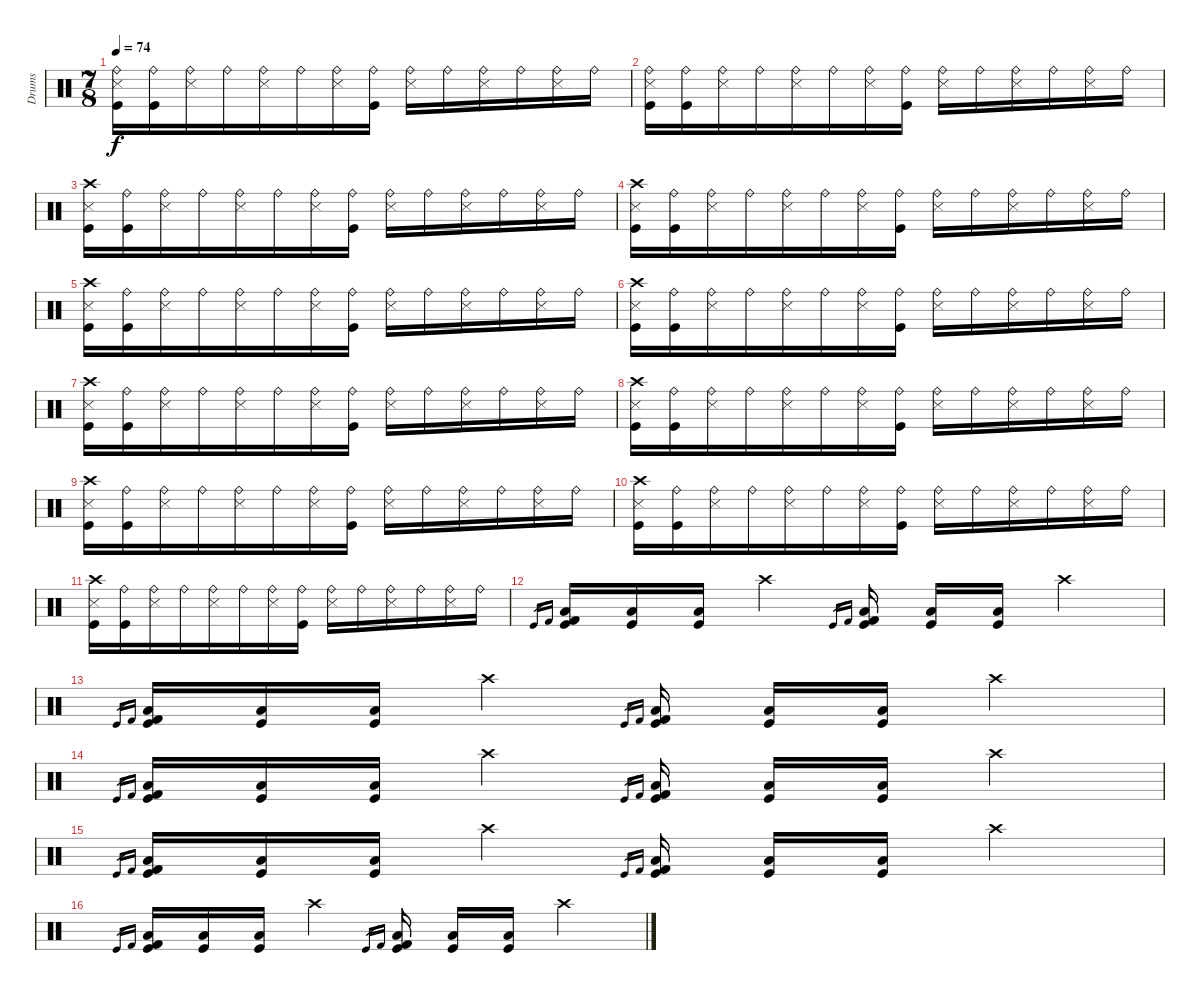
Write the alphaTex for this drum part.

\track ("Drums" "Drums") {instrument percussion}
\staff {score}
\articulation defaults
\ts (7 8)
\tempo 74
\clef neutral
\ks c
("Ride (bell)" "Snare (side stick) 3" "Kick (hit)").16{dy f} ("Ride (bell)" "Kick (hit)").16 ("Ride (bell)" "Snare (side stick) 3").16 "Ride (bell)".16 ("Ride (bell)" "Snare (side stick) 3").16 "Ride (bell)".16 ("Ride (bell)" "Snare (side stick) 3").16 ("Ride (bell)" "Kick (hit)").16 ("Ride (bell)" "Snare (side stick) 3").16 "Ride (bell)".16 ("Ride (bell)" "Snare (side stick) 3").16 "Ride (bell)".16 ("Ride (bell)" "Snare (side stick) 3").16 "Ride (bell)".16 |
("Ride (bell)" "Snare (side stick) 3" "Kick (hit)").16 ("Ride (bell)" "Kick (hit)").16 ("Ride (bell)" "Snare (side stick) 3").16 "Ride (bell)".16 ("Ride (bell)" "Snare (side stick) 3").16 "Ride (bell)".16 ("Ride (bell)" "Snare (side stick) 3").16 ("Ride (bell)" "Kick (hit)").16 ("Ride (bell)" "Snare (side stick) 3").16 "Ride (bell)".16 ("Ride (bell)" "Snare (side stick) 3").16 "Ride (bell)".16 ("Ride (bell)" "Snare (side stick) 3").16 "Ride (bell)".16 |
("Crash high (hit)" "Snare (side stick) 3" "Kick (hit)").16 ("Ride (bell)" "Kick (hit)").16 ("Ride (bell)" "Snare (side stick) 3").16 "Ride (bell)".16 ("Ride (bell)" "Snare (side stick) 3").16 "Ride (bell)".16 ("Ride (bell)" "Snare (side stick) 3").16 ("Ride (bell)" "Kick (hit)").16 ("Ride (bell)" "Snare (side stick) 3").16 "Ride (bell)".16 ("Ride (bell)" "Snare (side stick) 3").16 "Ride (bell)".16 ("Ride (bell)" "Snare (side stick) 3").16 "Ride (bell)".16 |
("Crash high (hit)" "Snare (side stick) 3" "Kick (hit)").16 ("Ride (bell)" "Kick (hit)").16 ("Ride (bell)" "Snare (side stick) 3").16 "Ride (bell)".16 ("Ride (bell)" "Snare (side stick) 3").16 "Ride (bell)".16 ("Ride (bell)" "Snare (side stick) 3").16 ("Ride (bell)" "Kick (hit)").16 ("Ride (bell)" "Snare (side stick) 3").16 "Ride (bell)".16 ("Ride (bell)" "Snare (side stick) 3").16 "Ride (bell)".16 ("Ride (bell)" "Snare (side stick) 3").16 "Ride (bell)".16 |
("Crash high (hit)" "Snare (side stick) 3" "Kick (hit)").16 ("Ride (bell)" "Kick (hit)").16 ("Ride (bell)" "Snare (side stick) 3").16 "Ride (bell)".16 ("Ride (bell)" "Snare (side stick) 3").16 "Ride (bell)".16 ("Ride (bell)" "Snare (side stick) 3").16 ("Ride (bell)" "Kick (hit)").16 ("Ride (bell)" "Snare (side stick) 3").16 "Ride (bell)".16 ("Ride (bell)" "Snare (side stick) 3").16 "Ride (bell)".16 ("Ride (bell)" "Snare (side stick) 3").16 "Ride (bell)".16 |
("Crash high (hit)" "Snare (side stick) 3" "Kick (hit)").16 ("Ride (bell)" "Kick (hit)").16 ("Ride (bell)" "Snare (side stick) 3").16 "Ride (bell)".16 ("Ride (bell)" "Snare (side stick) 3").16 "Ride (bell)".16 ("Ride (bell)" "Snare (side stick) 3").16 ("Ride (bell)" "Kick (hit)").16 ("Ride (bell)" "Snare (side stick) 3").16 "Ride (bell)".16 ("Ride (bell)" "Snare (side stick) 3").16 "Ride (bell)".16 ("Ride (bell)" "Snare (side stick) 3").16 "Ride (bell)".16 |
("Crash high (hit)" "Snare (side stick) 3" "Kick (hit)").16 ("Ride (bell)" "Kick (hit)").16 ("Ride (bell)" "Snare (side stick) 3").16 "Ride (bell)".16 ("Ride (bell)" "Snare (side stick) 3").16 "Ride (bell)".16 ("Ride (bell)" "Snare (side stick) 3").16 ("Ride (bell)" "Kick (hit)").16 ("Ride (bell)" "Snare (side stick) 3").16 "Ride (bell)".16 ("Ride (bell)" "Snare (side stick) 3").16 "Ride (bell)".16 ("Ride (bell)" "Snare (side stick) 3").16 "Ride (bell)".16 |
("Crash high (hit)" "Snare (side stick) 3" "Kick (hit)").16 ("Ride (bell)" "Kick (hit)").16 ("Ride (bell)" "Snare (side stick) 3").16 "Ride (bell)".16 ("Ride (bell)" "Snare (side stick) 3").16 "Ride (bell)".16 ("Ride (bell)" "Snare (side stick) 3").16 ("Ride (bell)" "Kick (hit)").16 ("Ride (bell)" "Snare (side stick) 3").16 "Ride (bell)".16 ("Ride (bell)" "Snare (side stick) 3").16 "Ride (bell)".16 ("Ride (bell)" "Snare (side stick) 3").16 "Ride (bell)".16 |
("Crash high (hit)" "Snare (side stick) 3" "Kick (hit)").16 ("Ride (bell)" "Kick (hit)").16 ("Ride (bell)" "Snare (side stick) 3").16 "Ride (bell)".16 ("Ride (bell)" "Snare (side stick) 3").16 "Ride (bell)".16 ("Ride (bell)" "Snare (side stick) 3").16 ("Ride (bell)" "Kick (hit)").16 ("Ride (bell)" "Snare (side stick) 3").16 "Ride (bell)".16 ("Ride (bell)" "Snare (side stick) 3").16 "Ride (bell)".16 ("Ride (bell)" "Snare (side stick) 3").16 "Ride (bell)".16 |
("Crash high (hit)" "Snare (side stick) 3" "Kick (hit)").16 ("Ride (bell)" "Kick (hit)").16 ("Ride (bell)" "Snare (side stick) 3").16 "Ride (bell)".16 ("Ride (bell)" "Snare (side stick) 3").16 "Ride (bell)".16 ("Ride (bell)" "Snare (side stick) 3").16 ("Ride (bell)" "Kick (hit)").16 ("Ride (bell)" "Snare (side stick) 3").16 "Ride (bell)".16 ("Ride (bell)" "Snare (side stick) 3").16 "Ride (bell)".16 ("Ride (bell)" "Snare (side stick) 3").16 "Ride (bell)".16 |
("Crash high (hit)" "Snare (side stick) 3" "Kick (hit)").16 ("Ride (bell)" "Kick (hit)").16 ("Ride (bell)" "Snare (side stick) 3").16 "Ride (bell)".16 ("Ride (bell)" "Snare (side stick) 3").16 "Ride (bell)".16 ("Ride (bell)" "Snare (side stick) 3").16 ("Ride (bell)" "Kick (hit)").16 ("Ride (bell)" "Snare (side stick) 3").16 "Ride (bell)".16 ("Ride (bell)" "Snare (side stick) 3").16 "Ride (bell)".16 ("Ride (bell)" "Snare (side stick) 3").16 "Ride (bell)".16 |
"Kick (hit)".16{gr} "Kick (hit) 2".16{gr} ("Low Floor Tom (hit)" "Kick (hit)" "Kick (hit) 2").16 ("Low Floor Tom (hit)" "Kick (hit)").16 ("Low Floor Tom (hit)" "Kick (hit)").16 "Crash high (hit)".4 "Kick (hit)".16{gr} "Kick (hit) 2".16{gr} ("Low Floor Tom (hit)" "Kick (hit)" "Kick (hit) 2").16 ("Low Floor Tom (hit)" "Kick (hit)").16 ("Low Floor Tom (hit)" "Kick (hit)").16 "Crash high (hit)".4 |
"Kick (hit)".16{gr} "Kick (hit) 2".16{gr} ("Low Floor Tom (hit)" "Kick (hit)" "Kick (hit) 2").16 ("Low Floor Tom (hit)" "Kick (hit)").16 ("Low Floor Tom (hit)" "Kick (hit)").16 "Crash high (hit)".4 "Kick (hit)".16{gr} "Kick (hit) 2".16{gr} ("Low Floor Tom (hit)" "Kick (hit)" "Kick (hit) 2").16 ("Low Floor Tom (hit)" "Kick (hit)").16 ("Low Floor Tom (hit)" "Kick (hit)").16 "Crash high (hit)".4 |
"Kick (hit)".16{gr} "Kick (hit) 2".16{gr} ("Low Floor Tom (hit)" "Kick (hit)" "Kick (hit) 2").16 ("Low Floor Tom (hit)" "Kick (hit)").16 ("Low Floor Tom (hit)" "Kick (hit)").16 "Crash high (hit)".4 "Kick (hit)".16{gr} "Kick (hit) 2".16{gr} ("Low Floor Tom (hit)" "Kick (hit)" "Kick (hit) 2").16 ("Low Floor Tom (hit)" "Kick (hit)").16 ("Low Floor Tom (hit)" "Kick (hit)").16 "Crash high (hit)".4 |
"Kick (hit)".16{gr} "Kick (hit) 2".16{gr} ("Low Floor Tom (hit)" "Kick (hit)" "Kick (hit) 2").16 ("Low Floor Tom (hit)" "Kick (hit)").16 ("Low Floor Tom (hit)" "Kick (hit)").16 "Crash high (hit)".4 "Kick (hit)".16{gr} "Kick (hit) 2".16{gr} ("Low Floor Tom (hit)" "Kick (hit)" "Kick (hit) 2").16 ("Low Floor Tom (hit)" "Kick (hit)").16 ("Low Floor Tom (hit)" "Kick (hit)").16 "Crash high (hit)".4 |
"Kick (hit)".16{gr} "Kick (hit) 2".16{gr} ("Low Floor Tom (hit)" "Kick (hit)" "Kick (hit) 2").16 ("Low Floor Tom (hit)" "Kick (hit)").16 ("Low Floor Tom (hit)" "Kick (hit)").16 "Crash high (hit)".4 "Kick (hit)".16{gr} "Kick (hit) 2".16{gr} ("Low Floor Tom (hit)" "Kick (hit)" "Kick (hit) 2").16 ("Low Floor Tom (hit)" "Kick (hit)").16 ("Low Floor Tom (hit)" "Kick (hit)").16 "Crash high (hit)".4
